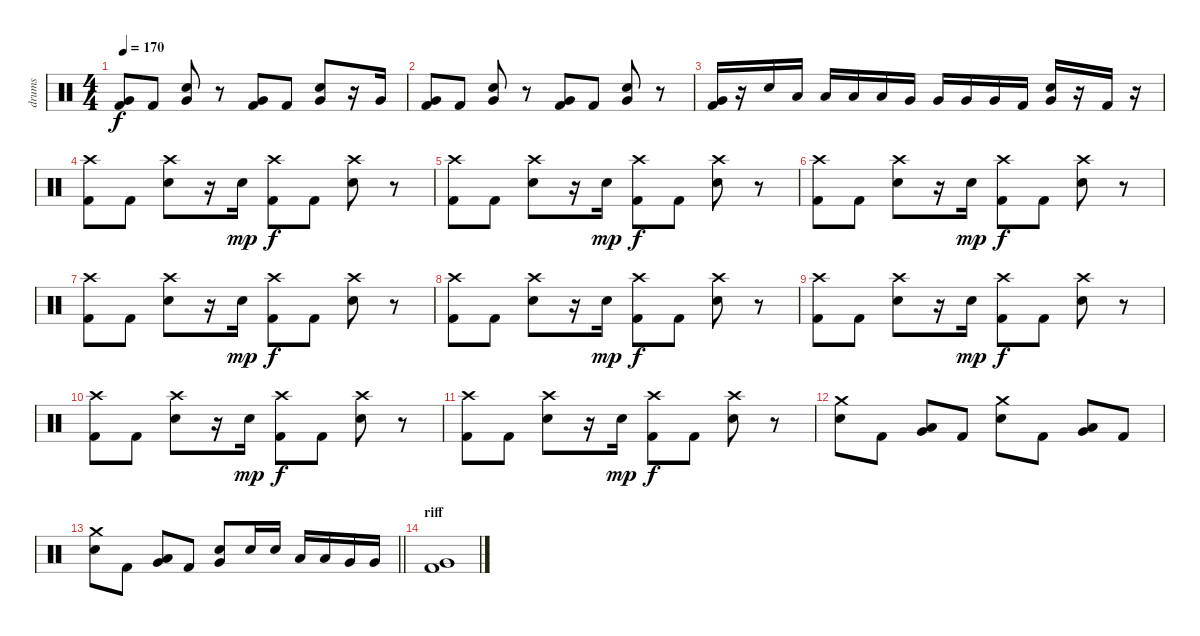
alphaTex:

\track ("drums" "drums") {instrument percussion}
\staff {score}
\articulation defaults
\ts (4 4)
\tempo 170
\clef neutral
\ks c
("Very Low Tom (hit)" "Kick (hit) 2").8{dy f} "Kick (hit) 2".8 ("Snare (hit) 2" "Very Low Tom (hit)").8 r.8 ("Very Low Tom (hit)" "Kick (hit) 2").8 "Kick (hit) 2".8 ("Snare (hit) 2" "Very Low Tom (hit)").8 r.16 "Very Low Tom (hit)".16 |
("Very Low Tom (hit)" "Kick (hit) 2").8 "Kick (hit) 2".8 ("Snare (hit) 2" "Very Low Tom (hit)").8 r.8 ("Very Low Tom (hit)" "Kick (hit) 2").8 "Kick (hit) 2".8 ("Snare (hit) 2" "Very Low Tom (hit)").8 r.8 |
("Very Low Tom (hit)" "Kick (hit) 2").16 r.16 "Snare (hit) 2".16 "Low Tom (hit)".16 "Low Tom (hit)".16 "Low Tom (hit)".16 "Low Tom (hit)".16 "Very Low Tom (hit)".16 "Very Low Tom (hit)".16 "Very Low Tom (hit)".16 "Very Low Tom (hit)".16 "Kick (hit) 2".16 ("Snare (hit) 2" "Very Low Tom (hit)").16 r.16 "Kick (hit) 2".16 r.16 |
("Crash high (hit)" "Kick (hit) 2").8 "Kick (hit) 2".8 ("Crash high (hit)" "Snare (hit) 2").8 r.16 "Snare (hit) 2".16{dy mp} ("Crash high (hit)" "Kick (hit) 2").8{dy f} "Kick (hit) 2".8 ("Crash high (hit)" "Snare (hit) 2").8 r.8 |
("Crash high (hit)" "Kick (hit) 2").8 "Kick (hit) 2".8 ("Crash high (hit)" "Snare (hit) 2").8 r.16 "Snare (hit) 2".16{dy mp} ("Crash high (hit)" "Kick (hit) 2").8{dy f} "Kick (hit) 2".8 ("Crash high (hit)" "Snare (hit) 2").8 r.8 |
("Crash high (hit)" "Kick (hit) 2").8 "Kick (hit) 2".8 ("Crash high (hit)" "Snare (hit) 2").8 r.16 "Snare (hit) 2".16{dy mp} ("Crash high (hit)" "Kick (hit) 2").8{dy f} "Kick (hit) 2".8 ("Crash high (hit)" "Snare (hit) 2").8 r.8 |
("Crash high (hit)" "Kick (hit) 2").8 "Kick (hit) 2".8 ("Crash high (hit)" "Snare (hit) 2").8 r.16 "Snare (hit) 2".16{dy mp} ("Crash high (hit)" "Kick (hit) 2").8{dy f} "Kick (hit) 2".8 ("Crash high (hit)" "Snare (hit) 2").8 r.8 |
("Crash high (hit)" "Kick (hit) 2").8 "Kick (hit) 2".8 ("Crash high (hit)" "Snare (hit) 2").8 r.16 "Snare (hit) 2".16{dy mp} ("Crash high (hit)" "Kick (hit) 2").8{dy f} "Kick (hit) 2".8 ("Crash high (hit)" "Snare (hit) 2").8 r.8 |
("Crash high (hit)" "Kick (hit) 2").8 "Kick (hit) 2".8 ("Crash high (hit)" "Snare (hit) 2").8 r.16 "Snare (hit) 2".16{dy mp} ("Crash high (hit)" "Kick (hit) 2").8{dy f} "Kick (hit) 2".8 ("Crash high (hit)" "Snare (hit) 2").8 r.8 |
("Crash high (hit)" "Kick (hit) 2").8 "Kick (hit) 2".8 ("Crash high (hit)" "Snare (hit) 2").8 r.16 "Snare (hit) 2".16{dy mp} ("Crash high (hit)" "Kick (hit) 2").8{dy f} "Kick (hit) 2".8 ("Crash high (hit)" "Snare (hit) 2").8 r.8 |
("Crash high (hit)" "Kick (hit) 2").8 "Kick (hit) 2".8 ("Crash high (hit)" "Snare (hit) 2").8 r.16 "Snare (hit) 2".16{dy mp} ("Crash high (hit)" "Kick (hit) 2").8{dy f} "Kick (hit) 2".8 ("Crash high (hit)" "Snare (hit) 2").8 r.8 |
("Crash medium (hit)" "Snare (hit) 2").8 "Kick (hit) 2".8 ("Low Tom (hit)" "Very Low Tom (hit)").8 "Kick (hit) 2".8 ("Crash medium (hit)" "Snare (hit) 2").8 "Kick (hit) 2".8 ("Low Tom (hit)" "Very Low Tom (hit)").8 "Kick (hit) 2".8 |
\barLineRight lightlight
("Crash medium (hit)" "Snare (hit) 2").8 "Kick (hit) 2".8 ("Low Tom (hit)" "Very Low Tom (hit)").8 "Kick (hit) 2".8 ("Snare (hit) 2" "Very Low Tom (hit)").8 "Snare (hit) 2".16 "Snare (hit) 2".16 "Low Tom (hit)".16 "Low Tom (hit)".16 "Very Low Tom (hit)".16 "Very Low Tom (hit)".16 |
\section ("" "riff")
("Very Low Tom (hit)" "Kick (hit) 2").1
